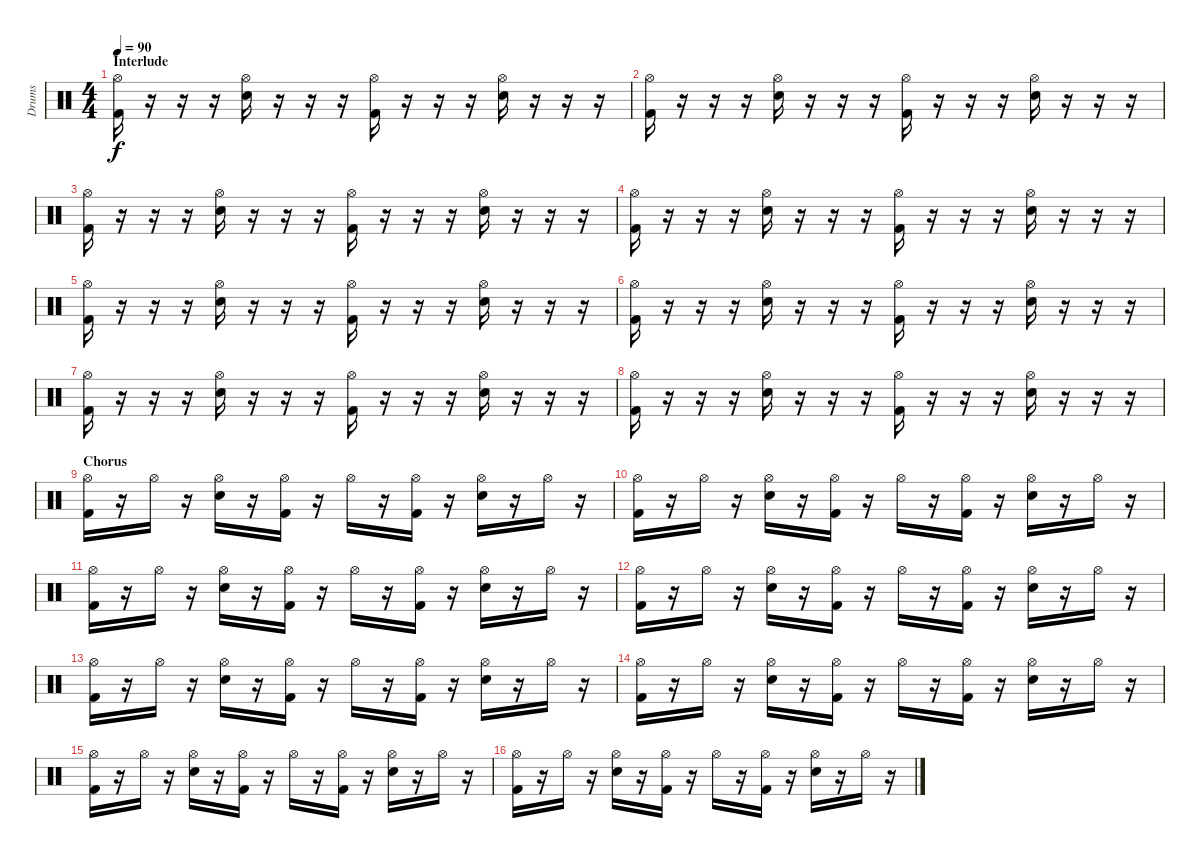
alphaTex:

\track ("Drums" "Drums") {instrument percussion}
\staff {score}
\articulation defaults
\ts (4 4)
\section ("" "Interlude")
\tempo 90
\clef neutral
\ks c
("Hi-Hat (open)" "Kick (hit) 2").16{dy f} r.16 r.16 r.16 ("Hi-Hat (open)" "Electric Snare (hit)").16 r.16 r.16 r.16 ("Hi-Hat (open)" "Kick (hit) 2").16 r.16 r.16 r.16 ("Hi-Hat (open)" "Electric Snare (hit)").16 r.16 r.16 r.16 |
("Hi-Hat (open)" "Kick (hit) 2").16 r.16 r.16 r.16 ("Hi-Hat (open)" "Electric Snare (hit)").16 r.16 r.16 r.16 ("Hi-Hat (open)" "Kick (hit) 2").16 r.16 r.16 r.16 ("Hi-Hat (open)" "Electric Snare (hit)").16 r.16 r.16 r.16 |
("Hi-Hat (open)" "Kick (hit) 2").16 r.16 r.16 r.16 ("Hi-Hat (open)" "Electric Snare (hit)").16 r.16 r.16 r.16 ("Hi-Hat (open)" "Kick (hit) 2").16 r.16 r.16 r.16 ("Hi-Hat (open)" "Electric Snare (hit)").16 r.16 r.16 r.16 |
("Hi-Hat (open)" "Kick (hit) 2").16 r.16 r.16 r.16 ("Hi-Hat (open)" "Electric Snare (hit)").16 r.16 r.16 r.16 ("Hi-Hat (open)" "Kick (hit) 2").16 r.16 r.16 r.16 ("Hi-Hat (open)" "Electric Snare (hit)").16 r.16 r.16 r.16 |
("Hi-Hat (open)" "Kick (hit) 2").16 r.16 r.16 r.16 ("Hi-Hat (open)" "Electric Snare (hit)").16 r.16 r.16 r.16 ("Hi-Hat (open)" "Kick (hit) 2").16 r.16 r.16 r.16 ("Hi-Hat (open)" "Electric Snare (hit)").16 r.16 r.16 r.16 |
("Hi-Hat (open)" "Kick (hit) 2").16 r.16 r.16 r.16 ("Hi-Hat (open)" "Electric Snare (hit)").16 r.16 r.16 r.16 ("Hi-Hat (open)" "Kick (hit) 2").16 r.16 r.16 r.16 ("Hi-Hat (open)" "Electric Snare (hit)").16 r.16 r.16 r.16 |
("Hi-Hat (open)" "Kick (hit) 2").16 r.16 r.16 r.16 ("Hi-Hat (open)" "Electric Snare (hit)").16 r.16 r.16 r.16 ("Hi-Hat (open)" "Kick (hit) 2").16 r.16 r.16 r.16 ("Hi-Hat (open)" "Electric Snare (hit)").16 r.16 r.16 r.16 |
("Hi-Hat (open)" "Kick (hit) 2").16 r.16 r.16 r.16 ("Hi-Hat (open)" "Electric Snare (hit)").16 r.16 r.16 r.16 ("Hi-Hat (open)" "Kick (hit) 2").16 r.16 r.16 r.16 ("Hi-Hat (open)" "Electric Snare (hit)").16 r.16 r.16 r.16 |
\section ("" "Chorus")
("Hi-Hat (open)" "Kick (hit) 2").16 r.16 "Hi-Hat (open)".16 r.16 ("Hi-Hat (open)" "Electric Snare (hit)").16 r.16 ("Hi-Hat (open)" "Kick (hit) 2").16 r.16 "Hi-Hat (open)".16 r.16 ("Hi-Hat (open)" "Kick (hit) 2").16 r.16 ("Hi-Hat (open)" "Electric Snare (hit)").16 r.16 "Hi-Hat (open)".16 r.16 |
("Hi-Hat (open)" "Kick (hit) 2").16 r.16 "Hi-Hat (open)".16 r.16 ("Hi-Hat (open)" "Electric Snare (hit)").16 r.16 ("Hi-Hat (open)" "Kick (hit) 2").16 r.16 "Hi-Hat (open)".16 r.16 ("Hi-Hat (open)" "Kick (hit) 2").16 r.16 ("Hi-Hat (open)" "Electric Snare (hit)").16 r.16 "Hi-Hat (open)".16 r.16 |
("Hi-Hat (open)" "Kick (hit) 2").16 r.16 "Hi-Hat (open)".16 r.16 ("Hi-Hat (open)" "Electric Snare (hit)").16 r.16 ("Hi-Hat (open)" "Kick (hit) 2").16 r.16 "Hi-Hat (open)".16 r.16 ("Hi-Hat (open)" "Kick (hit) 2").16 r.16 ("Hi-Hat (open)" "Electric Snare (hit)").16 r.16 "Hi-Hat (open)".16 r.16 |
("Hi-Hat (open)" "Kick (hit) 2").16 r.16 "Hi-Hat (open)".16 r.16 ("Hi-Hat (open)" "Electric Snare (hit)").16 r.16 ("Hi-Hat (open)" "Kick (hit) 2").16 r.16 "Hi-Hat (open)".16 r.16 ("Hi-Hat (open)" "Kick (hit) 2").16 r.16 ("Hi-Hat (open)" "Electric Snare (hit)").16 r.16 "Hi-Hat (open)".16 r.16 |
("Hi-Hat (open)" "Kick (hit) 2").16 r.16 "Hi-Hat (open)".16 r.16 ("Hi-Hat (open)" "Electric Snare (hit)").16 r.16 ("Hi-Hat (open)" "Kick (hit) 2").16 r.16 "Hi-Hat (open)".16 r.16 ("Hi-Hat (open)" "Kick (hit) 2").16 r.16 ("Hi-Hat (open)" "Electric Snare (hit)").16 r.16 "Hi-Hat (open)".16 r.16 |
("Hi-Hat (open)" "Kick (hit) 2").16 r.16 "Hi-Hat (open)".16 r.16 ("Hi-Hat (open)" "Electric Snare (hit)").16 r.16 ("Hi-Hat (open)" "Kick (hit) 2").16 r.16 "Hi-Hat (open)".16 r.16 ("Hi-Hat (open)" "Kick (hit) 2").16 r.16 ("Hi-Hat (open)" "Electric Snare (hit)").16 r.16 "Hi-Hat (open)".16 r.16 |
("Hi-Hat (open)" "Kick (hit) 2").16 r.16 "Hi-Hat (open)".16 r.16 ("Hi-Hat (open)" "Electric Snare (hit)").16 r.16 ("Hi-Hat (open)" "Kick (hit) 2").16 r.16 "Hi-Hat (open)".16 r.16 ("Hi-Hat (open)" "Kick (hit) 2").16 r.16 ("Hi-Hat (open)" "Electric Snare (hit)").16 r.16 "Hi-Hat (open)".16 r.16 |
("Hi-Hat (open)" "Kick (hit) 2").16 r.16 "Hi-Hat (open)".16 r.16 ("Hi-Hat (open)" "Electric Snare (hit)").16 r.16 ("Hi-Hat (open)" "Kick (hit) 2").16 r.16 "Hi-Hat (open)".16 r.16 ("Hi-Hat (open)" "Kick (hit) 2").16 r.16 ("Hi-Hat (open)" "Electric Snare (hit)").16 r.16 "Hi-Hat (open)".16 r.16
